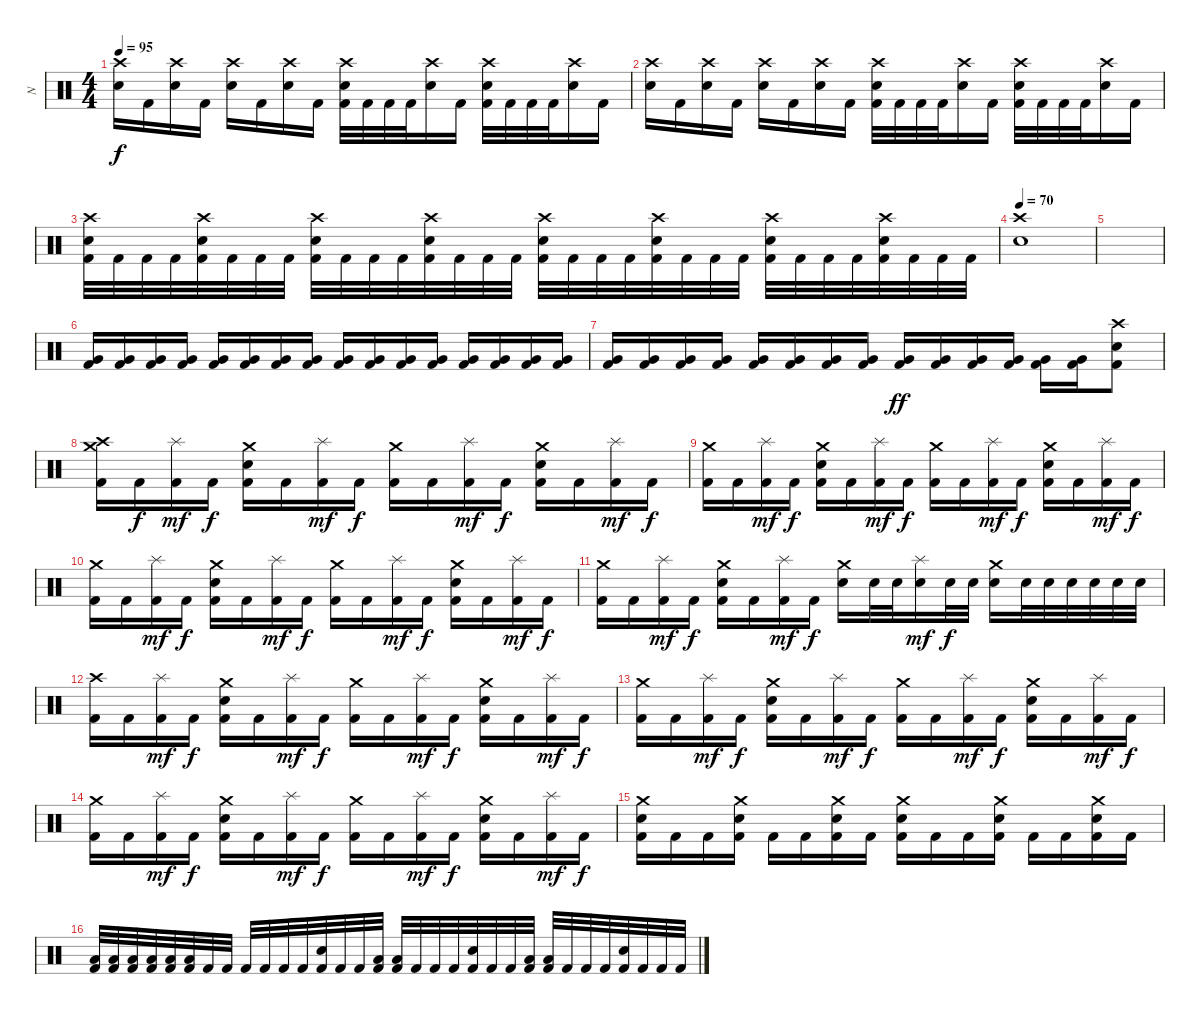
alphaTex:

\track ("N" "N") {instrument percussion}
\staff {score}
\articulation defaults
\ts (4 4)
\tempo 95
\clef neutral
\ks c
("Crash high (hit)" "Electric Snare (hit)").16{dy f} "Kick (hit) 2".16 ("Crash high (hit)" "Electric Snare (hit)").16 "Kick (hit) 2".16 ("Crash high (hit)" "Electric Snare (hit)").16 "Kick (hit) 2".16 ("Crash high (hit)" "Electric Snare (hit)").16 "Kick (hit) 2".16 ("Crash high (hit)" "Electric Snare (hit)" "Kick (hit) 2").32 "Kick (hit) 2".32 "Kick (hit) 2".32 "Kick (hit) 2".32 ("Crash high (hit)" "Electric Snare (hit)").16 "Kick (hit) 2".16 ("Crash high (hit)" "Electric Snare (hit)" "Kick (hit) 2").32 "Kick (hit) 2".32 "Kick (hit) 2".32 "Kick (hit) 2".32 ("Crash high (hit)" "Electric Snare (hit)").16 "Kick (hit) 2".16 |
("Crash high (hit)" "Electric Snare (hit)").16 "Kick (hit) 2".16 ("Crash high (hit)" "Electric Snare (hit)").16 "Kick (hit) 2".16 ("Crash high (hit)" "Electric Snare (hit)").16 "Kick (hit) 2".16 ("Crash high (hit)" "Electric Snare (hit)").16 "Kick (hit) 2".16 ("Crash high (hit)" "Electric Snare (hit)" "Kick (hit) 2").32 "Kick (hit) 2".32 "Kick (hit) 2".32 "Kick (hit) 2".32 ("Crash high (hit)" "Electric Snare (hit)").16 "Kick (hit) 2".16 ("Crash high (hit)" "Electric Snare (hit)" "Kick (hit) 2").32 "Kick (hit) 2".32 "Kick (hit) 2".32 "Kick (hit) 2".32 ("Crash high (hit)" "Electric Snare (hit)").16 "Kick (hit) 2".16 |
("Crash high (hit)" "Electric Snare (hit)" "Kick (hit) 2").32 "Kick (hit) 2".32 "Kick (hit) 2".32 "Kick (hit) 2".32 ("Crash high (hit)" "Electric Snare (hit)" "Kick (hit) 2").32 "Kick (hit) 2".32 "Kick (hit) 2".32 "Kick (hit) 2".32 ("Crash high (hit)" "Electric Snare (hit)" "Kick (hit) 2").32 "Kick (hit) 2".32 "Kick (hit) 2".32 "Kick (hit) 2".32 ("Crash high (hit)" "Electric Snare (hit)" "Kick (hit) 2").32 "Kick (hit) 2".32 "Kick (hit) 2".32 "Kick (hit) 2".32 ("Crash high (hit)" "Electric Snare (hit)" "Kick (hit) 2").32 "Kick (hit) 2".32 "Kick (hit) 2".32 "Kick (hit) 2".32 ("Crash high (hit)" "Electric Snare (hit)" "Kick (hit) 2").32 "Kick (hit) 2".32 "Kick (hit) 2".32 "Kick (hit) 2".32 ("Crash high (hit)" "Electric Snare (hit)" "Kick (hit) 2").32 "Kick (hit) 2".32 "Kick (hit) 2".32 "Kick (hit) 2".32 ("Crash high (hit)" "Electric Snare (hit)" "Kick (hit) 2").32 "Kick (hit) 2".32 "Kick (hit) 2".32 "Kick (hit) 2".32 |
\section ("" " ")
\tempo 70
("Crash high (hit)" "Electric Snare (hit)").1 |
|
("Very Low Tom (hit)" "Kick (hit) 2").16{volume 16} ("Very Low Tom (hit)" "Kick (hit) 2").16 ("Very Low Tom (hit)" "Kick (hit) 2").16 ("Very Low Tom (hit)" "Kick (hit) 2").16 ("Very Low Tom (hit)" "Kick (hit) 2").16 ("Very Low Tom (hit)" "Kick (hit) 2").16 ("Very Low Tom (hit)" "Kick (hit) 2").16 ("Very Low Tom (hit)" "Kick (hit) 2").16 ("Very Low Tom (hit)" "Kick (hit) 2").16 ("Very Low Tom (hit)" "Kick (hit) 2").16 ("Very Low Tom (hit)" "Kick (hit) 2").16 ("Very Low Tom (hit)" "Kick (hit) 2").16 ("Very Low Tom (hit)" "Kick (hit) 2").16 ("Very Low Tom (hit)" "Kick (hit) 2").16 ("Very Low Tom (hit)" "Kick (hit) 2").16 ("Very Low Tom (hit)" "Kick (hit) 2").16 |
("Very Low Tom (hit)" "Kick (hit) 2").16 ("Very Low Tom (hit)" "Kick (hit) 2").16 ("Very Low Tom (hit)" "Kick (hit) 2").16 ("Very Low Tom (hit)" "Kick (hit) 2").16 ("Very Low Tom (hit)" "Kick (hit) 2").16 ("Very Low Tom (hit)" "Kick (hit) 2").16 ("Very Low Tom (hit)" "Kick (hit) 2").16 ("Very Low Tom (hit)" "Kick (hit) 2").16 ("Very Low Tom (hit)" "Kick (hit) 2").16{dy ff} ("Very Low Tom (hit)" "Kick (hit) 2").16 ("Very Low Tom (hit)" "Kick (hit) 2").16 ("Very Low Tom (hit)" "Kick (hit) 2").16 ("Very Low Tom (hit)" "Kick (hit) 2").16 ("Very Low Tom (hit)" "Kick (hit) 2").16 ("Crash high (hit)" "Electric Snare (hit)" "Kick (hit) 2").8 |
("Crash medium (hit)" "Crash high (hit)" "Kick (hit) 2").16 "Kick (hit) 2".16{dy f} ("Splash (hit)" "Kick (hit) 2").16{dy mf} "Kick (hit) 2".16{dy f} ("Crash medium (hit)" "Electric Snare (hit)" "Kick (hit) 2").16 "Kick (hit) 2".16 ("Splash (hit)" "Kick (hit) 2").16{dy mf} "Kick (hit) 2".16{dy f} ("Crash medium (hit)" "Kick (hit) 2").16 "Kick (hit) 2".16 ("Splash (hit)" "Kick (hit) 2").16{dy mf} "Kick (hit) 2".16{dy f} ("Crash medium (hit)" "Electric Snare (hit)" "Kick (hit) 2").16 "Kick (hit) 2".16 ("Splash (hit)" "Kick (hit) 2").16{dy mf} "Kick (hit) 2".16{dy f} |
("Crash medium (hit)" "Kick (hit) 2").16 "Kick (hit) 2".16 ("Splash (hit)" "Kick (hit) 2").16{dy mf} "Kick (hit) 2".16{dy f} ("Crash medium (hit)" "Electric Snare (hit)" "Kick (hit) 2").16 "Kick (hit) 2".16 ("Splash (hit)" "Kick (hit) 2").16{dy mf} "Kick (hit) 2".16{dy f} ("Crash medium (hit)" "Kick (hit) 2").16 "Kick (hit) 2".16 ("Splash (hit)" "Kick (hit) 2").16{dy mf} "Kick (hit) 2".16{dy f} ("Crash medium (hit)" "Electric Snare (hit)" "Kick (hit) 2").16 "Kick (hit) 2".16 ("Splash (hit)" "Kick (hit) 2").16{dy mf} "Kick (hit) 2".16{dy f} |
("Crash medium (hit)" "Kick (hit) 2").16 "Kick (hit) 2".16 ("Splash (hit)" "Kick (hit) 2").16{dy mf} "Kick (hit) 2".16{dy f} ("Crash medium (hit)" "Electric Snare (hit)" "Kick (hit) 2").16 "Kick (hit) 2".16 ("Splash (hit)" "Kick (hit) 2").16{dy mf} "Kick (hit) 2".16{dy f} ("Crash medium (hit)" "Kick (hit) 2").16 "Kick (hit) 2".16 ("Splash (hit)" "Kick (hit) 2").16{dy mf} "Kick (hit) 2".16{dy f} ("Crash medium (hit)" "Electric Snare (hit)" "Kick (hit) 2").16 "Kick (hit) 2".16 ("Splash (hit)" "Kick (hit) 2").16{dy mf} "Kick (hit) 2".16{dy f} |
("Crash medium (hit)" "Kick (hit) 2").16 "Kick (hit) 2".16 ("Splash (hit)" "Kick (hit) 2").16{dy mf} "Kick (hit) 2".16{dy f} ("Crash medium (hit)" "Electric Snare (hit)" "Kick (hit) 2").16 "Kick (hit) 2".16 ("Splash (hit)" "Kick (hit) 2").16{dy mf} "Kick (hit) 2".16{dy f} ("Crash medium (hit)" "Electric Snare (hit)").16 "Electric Snare (hit)".32 "Electric Snare (hit)".32 ("Splash (hit)" "Electric Snare (hit)").16{dy mf} "Electric Snare (hit)".32{dy f} "Electric Snare (hit)".32 ("Crash medium (hit)" "Electric Snare (hit)").16 "Electric Snare (hit)".32 "Electric Snare (hit)".32 "Electric Snare (hit)".32 "Electric Snare (hit)".32 "Electric Snare (hit)".32 "Electric Snare (hit)".32 |
("Crash high (hit)" "Kick (hit) 2").16 "Kick (hit) 2".16 ("Splash (hit)" "Kick (hit) 2").16{dy mf} "Kick (hit) 2".16{dy f} ("Crash medium (hit)" "Electric Snare (hit)" "Kick (hit) 2").16 "Kick (hit) 2".16 ("Splash (hit)" "Kick (hit) 2").16{dy mf} "Kick (hit) 2".16{dy f} ("Crash medium (hit)" "Kick (hit) 2").16 "Kick (hit) 2".16 ("Splash (hit)" "Kick (hit) 2").16{dy mf} "Kick (hit) 2".16{dy f} ("Crash medium (hit)" "Electric Snare (hit)" "Kick (hit) 2").16 "Kick (hit) 2".16 ("Splash (hit)" "Kick (hit) 2").16{dy mf} "Kick (hit) 2".16{dy f} |
("Crash medium (hit)" "Kick (hit) 2").16 "Kick (hit) 2".16 ("Splash (hit)" "Kick (hit) 2").16{dy mf} "Kick (hit) 2".16{dy f} ("Crash medium (hit)" "Electric Snare (hit)" "Kick (hit) 2").16 "Kick (hit) 2".16 ("Splash (hit)" "Kick (hit) 2").16{dy mf} "Kick (hit) 2".16{dy f} ("Crash medium (hit)" "Kick (hit) 2").16 "Kick (hit) 2".16 ("Splash (hit)" "Kick (hit) 2").16{dy mf} "Kick (hit) 2".16{dy f} ("Crash medium (hit)" "Electric Snare (hit)" "Kick (hit) 2").16 "Kick (hit) 2".16 ("Splash (hit)" "Kick (hit) 2").16{dy mf} "Kick (hit) 2".16{dy f} |
("Crash medium (hit)" "Kick (hit) 2").16 "Kick (hit) 2".16 ("Splash (hit)" "Kick (hit) 2").16{dy mf} "Kick (hit) 2".16{dy f} ("Crash medium (hit)" "Electric Snare (hit)" "Kick (hit) 2").16 "Kick (hit) 2".16 ("Splash (hit)" "Kick (hit) 2").16{dy mf} "Kick (hit) 2".16{dy f} ("Crash medium (hit)" "Kick (hit) 2").16 "Kick (hit) 2".16 ("Splash (hit)" "Kick (hit) 2").16{dy mf} "Kick (hit) 2".16{dy f} ("Crash medium (hit)" "Electric Snare (hit)" "Kick (hit) 2").16 "Kick (hit) 2".16 ("Splash (hit)" "Kick (hit) 2").16{dy mf} "Kick (hit) 2".16{dy f} |
("Crash medium (hit)" "Electric Snare (hit)" "Kick (hit) 2").16 "Kick (hit) 2".16 "Kick (hit) 2".16 ("Crash medium (hit)" "Electric Snare (hit)" "Kick (hit) 2").16 "Kick (hit) 2".16 "Kick (hit) 2".16 ("Crash medium (hit)" "Electric Snare (hit)" "Kick (hit) 2").16 "Kick (hit) 2".16 ("Crash medium (hit)" "Electric Snare (hit)" "Kick (hit) 2").16 "Kick (hit) 2".16 "Kick (hit) 2".16 ("Crash medium (hit)" "Electric Snare (hit)" "Kick (hit) 2").16 "Kick (hit) 2".16 "Kick (hit) 2".16 ("Crash medium (hit)" "Electric Snare (hit)" "Kick (hit) 2").16 "Kick (hit) 2".16 |
\section ("" " ")
("Low Tom (hit)" "Kick (hit) 2").32 ("Low Tom (hit)" "Kick (hit) 2").32 ("Low Tom (hit)" "Kick (hit) 2").32 ("Low Tom (hit)" "Kick (hit) 2").32 ("Low Tom (hit)" "Kick (hit) 2").32 ("Low Tom (hit)" "Kick (hit) 2").32 "Kick (hit) 2".32 "Kick (hit) 2".32 "Kick (hit) 2".32 "Kick (hit) 2".32 "Kick (hit) 2".32 "Kick (hit) 2".32 ("Electric Snare (hit)" "Kick (hit) 2").32 "Kick (hit) 2".32 "Kick (hit) 2".32 ("Low Tom (hit)" "Kick (hit) 2").32 ("Low Tom (hit)" "Kick (hit) 2").32 "Kick (hit) 2".32 "Kick (hit) 2".32 "Kick (hit) 2".32 ("Electric Snare (hit)" "Kick (hit) 2").32 "Kick (hit) 2".32 "Kick (hit) 2".32 ("Low Tom (hit)" "Kick (hit) 2").32 ("Low Tom (hit)" "Kick (hit) 2").32 "Kick (hit) 2".32 "Kick (hit) 2".32 "Kick (hit) 2".32 ("Electric Snare (hit)" "Kick (hit) 2").32 "Kick (hit) 2".32 "Kick (hit) 2".32 "Kick (hit) 2".32
